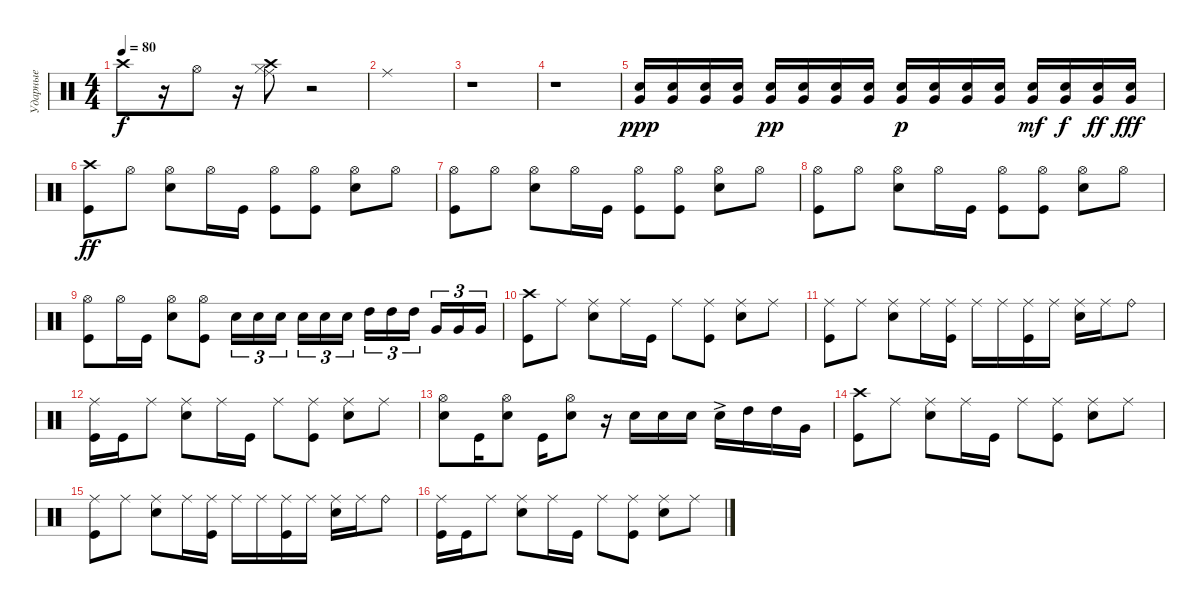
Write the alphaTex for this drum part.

\track ("Ударные" "Ударные") {instrument percussion}
\staff {score}
\articulation defaults
\ts (4 4)
\tempo 80
\clef neutral
\ks c "Crash high (hit)".8{dy f}
r.16 "Hi-Hat (open)".8 r.16 ("Ride (middle)" "Hi-Hat (closed)" "Crash high (hit)").8 r.2 |
"Ride (middle)".1 |
r.1 |
r.1 |
("Very Low Tom (hit)" "Snare (hit) 2").16{dy ppp} ("Very Low Tom (hit)" "Snare (hit) 2").16 ("Very Low Tom (hit)" "Snare (hit) 2").16 ("Very Low Tom (hit)" "Snare (hit) 2").16 ("Very Low Tom (hit)" "Snare (hit) 2").16{dy pp} ("Very Low Tom (hit)" "Snare (hit) 2").16 ("Very Low Tom (hit)" "Snare (hit) 2").16 ("Very Low Tom (hit)" "Snare (hit) 2").16 ("Very Low Tom (hit)" "Snare (hit) 2").16{dy p} ("Very Low Tom (hit)" "Snare (hit) 2").16 ("Very Low Tom (hit)" "Snare (hit) 2").16 ("Very Low Tom (hit)" "Snare (hit) 2").16 ("Very Low Tom (hit)" "Snare (hit) 2").16{dy mf} ("Very Low Tom (hit)" "Snare (hit) 2").16{dy f} ("Very Low Tom (hit)" "Snare (hit) 2").16{dy ff} ("Very Low Tom (hit)" "Snare (hit) 2").16{dy fff} |
("Crash high (hit)" "Kick (hit)").8{dy ff} "Hi-Hat (open)".8 ("Hi-Hat (open)" "Snare (hit) 2").8 "Hi-Hat (open)".16 "Kick (hit)".16 ("Hi-Hat (open)" "Kick (hit)").8 ("Hi-Hat (open)" "Kick (hit)").8 ("Hi-Hat (open)" "Snare (hit) 2").8 "Hi-Hat (open)".8 |
("Hi-Hat (open)" "Kick (hit)").8 "Hi-Hat (open)".8 ("Hi-Hat (open)" "Snare (hit) 2").8 "Hi-Hat (open)".16 "Kick (hit)".16 ("Hi-Hat (open)" "Kick (hit)").8 ("Hi-Hat (open)" "Kick (hit)").8 ("Hi-Hat (open)" "Snare (hit) 2").8 "Hi-Hat (open)".8 |
("Hi-Hat (open)" "Kick (hit)").8 "Hi-Hat (open)".8 ("Hi-Hat (open)" "Snare (hit) 2").8 "Hi-Hat (open)".16 "Kick (hit)".16 ("Hi-Hat (open)" "Kick (hit)").8 ("Hi-Hat (open)" "Kick (hit)").8 ("Hi-Hat (open)" "Snare (hit) 2").8 "Hi-Hat (open)".8 |
("Hi-Hat (open)" "Kick (hit)").8 "Hi-Hat (open)".16 "Kick (hit)".16 ("Hi-Hat (open)" "Snare (hit) 2").8 ("Hi-Hat (open)" "Kick (hit)").8 "Snare (hit) 2".16{tu (3 2)} "Snare (hit) 2".16{tu (3 2)} "Snare (hit) 2".16{tu (3 2) beam splitsecondary} "Snare (hit) 2".16{tu (3 2)} "Snare (hit) 2".16{tu (3 2)} "Snare (hit) 2".16{tu (3 2)} "High Tom (hit)".16{tu (3 2)} "High Tom (hit)".16{tu (3 2)} "High Tom (hit)".16{tu (3 2) beam splitsecondary} "Very Low Tom (hit)".16{tu (3 2)} "Very Low Tom (hit)".16{tu (3 2)} "Very Low Tom (hit)".16{tu (3 2)} |
("Crash high (hit)" "Kick (hit)").8 "Ride (middle)".8 ("Ride (middle)" "Snare (hit) 2").8 "Ride (middle)".16 "Kick (hit)".16 "Ride (middle)".8 ("Ride (middle)" "Kick (hit)").8 ("Ride (middle)" "Snare (hit) 2").8 "Ride (middle)".8 |
("Ride (middle)" "Kick (hit)").8 "Ride (middle)".8 ("Ride (middle)" "Snare (hit) 2").8 "Ride (middle)".16 ("Ride (middle)" "Kick (hit)").16 "Ride (middle)".16 "Ride (middle)".16 ("Ride (middle)" "Kick (hit)").16 "Ride (middle)".16 ("Ride (middle)" "Snare (hit) 2").16 "Ride (middle)".16 "Ride (bell)".8 |
("Ride (middle)" "Kick (hit)").16 "Kick (hit)".16 "Ride (middle)".8 ("Ride (middle)" "Snare (hit) 2").8 "Ride (middle)".16 "Kick (hit)".16 "Ride (middle)".8 ("Ride (middle)" "Kick (hit)").8 ("Ride (middle)" "Snare (hit) 2").8 "Ride (middle)".8 |
("Hi-Hat (open)" "Snare (hit) 2").8 "Kick (hit)".16 ("Hi-Hat (open)" "Snare (hit) 2").8 "Kick (hit)".16 ("Hi-Hat (open)" "Snare (hit) 2").8 r.16 "Snare (hit) 2".16 "Snare (hit) 2".16 "Snare (hit) 2".16 "Snare (hit) 2"{ac}.16 "High Tom (hit)".16 "High Tom (hit)".16 "Very Low Tom (hit)".16 |
("Crash high (hit)" "Kick (hit)").8 "Ride (middle)".8 ("Ride (middle)" "Snare (hit) 2").8 "Ride (middle)".16 "Kick (hit)".16 "Ride (middle)".8 ("Ride (middle)" "Kick (hit)").8 ("Ride (middle)" "Snare (hit) 2").8 "Ride (middle)".8 |
("Ride (middle)" "Kick (hit)").8 "Ride (middle)".8 ("Ride (middle)" "Snare (hit) 2").8 "Ride (middle)".16 ("Ride (middle)" "Kick (hit)").16 "Ride (middle)".16 "Ride (middle)".16 ("Ride (middle)" "Kick (hit)").16 "Ride (middle)".16 ("Ride (middle)" "Snare (hit) 2").16 "Ride (middle)".16 "Ride (bell)".8 |
("Ride (middle)" "Kick (hit)").16 "Kick (hit)".16 "Ride (middle)".8 ("Ride (middle)" "Snare (hit) 2").8 "Ride (middle)".16 "Kick (hit)".16 "Ride (middle)".8 ("Ride (middle)" "Kick (hit)").8 ("Ride (middle)" "Snare (hit) 2").8 "Ride (middle)".8
